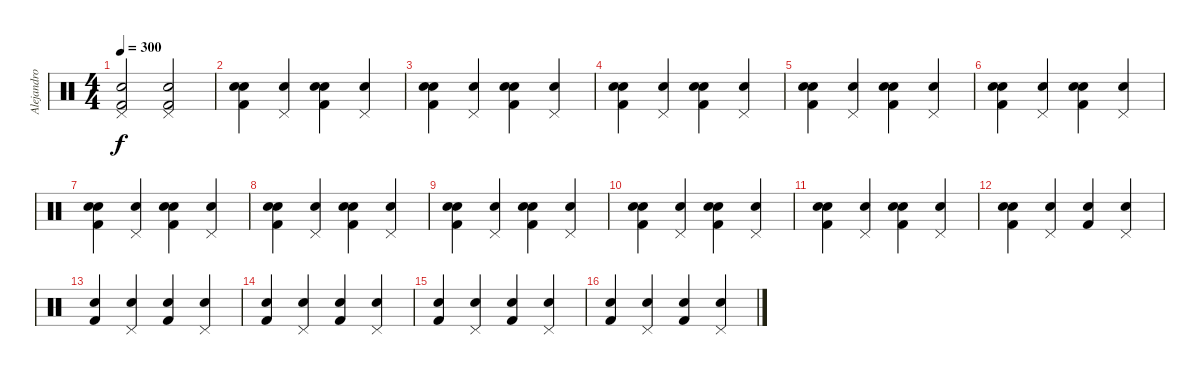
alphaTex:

\track ("Alejandro" "Alejandro") {instrument percussion}
\staff {score}
\articulation defaults
\ts (4 4)
\tempo 300
\clef neutral
\ks c
("Pedal Hi-Hat (hit)" "Electric Snare (hit)" "Kick (hit) 2").2{dy f} ("Pedal Hi-Hat (hit)" "Electric Snare (hit)" "Kick (hit) 2").2 |
("Snare (hit) 2" "Electric Snare (hit)" "Kick (hit) 2").4 ("Pedal Hi-Hat (hit)" "Snare (hit) 2").4 ("Snare (hit) 2" "Electric Snare (hit)" "Kick (hit) 2").4 ("Pedal Hi-Hat (hit)" "Snare (hit) 2").4 |
("Snare (hit) 2" "Electric Snare (hit)" "Kick (hit) 2").4 ("Pedal Hi-Hat (hit)" "Snare (hit) 2").4 ("Snare (hit) 2" "Electric Snare (hit)" "Kick (hit) 2").4 ("Pedal Hi-Hat (hit)" "Snare (hit) 2").4 |
("Snare (hit) 2" "Electric Snare (hit)" "Kick (hit) 2").4 ("Pedal Hi-Hat (hit)" "Snare (hit) 2").4 ("Snare (hit) 2" "Electric Snare (hit)" "Kick (hit) 2").4 ("Pedal Hi-Hat (hit)" "Snare (hit) 2").4 |
("Snare (hit) 2" "Electric Snare (hit)" "Kick (hit) 2").4 ("Pedal Hi-Hat (hit)" "Snare (hit) 2").4 ("Snare (hit) 2" "Electric Snare (hit)" "Kick (hit) 2").4 ("Pedal Hi-Hat (hit)" "Snare (hit) 2").4 |
("Snare (hit) 2" "Electric Snare (hit)" "Kick (hit) 2").4 ("Pedal Hi-Hat (hit)" "Snare (hit) 2").4 ("Snare (hit) 2" "Electric Snare (hit)" "Kick (hit) 2").4 ("Pedal Hi-Hat (hit)" "Snare (hit) 2").4 |
("Snare (hit) 2" "Electric Snare (hit)" "Kick (hit) 2").4 ("Pedal Hi-Hat (hit)" "Snare (hit) 2").4 ("Snare (hit) 2" "Electric Snare (hit)" "Kick (hit) 2").4 ("Pedal Hi-Hat (hit)" "Snare (hit) 2").4 |
("Snare (hit) 2" "Electric Snare (hit)" "Kick (hit) 2").4 ("Pedal Hi-Hat (hit)" "Snare (hit) 2").4 ("Snare (hit) 2" "Electric Snare (hit)" "Kick (hit) 2").4 ("Pedal Hi-Hat (hit)" "Snare (hit) 2").4 |
("Snare (hit) 2" "Electric Snare (hit)" "Kick (hit) 2").4 ("Pedal Hi-Hat (hit)" "Snare (hit) 2").4 ("Snare (hit) 2" "Electric Snare (hit)" "Kick (hit) 2").4 ("Pedal Hi-Hat (hit)" "Snare (hit) 2").4 |
("Snare (hit) 2" "Electric Snare (hit)" "Kick (hit) 2").4 ("Pedal Hi-Hat (hit)" "Snare (hit) 2").4 ("Snare (hit) 2" "Electric Snare (hit)" "Kick (hit) 2").4 ("Pedal Hi-Hat (hit)" "Snare (hit) 2").4 |
("Snare (hit) 2" "Electric Snare (hit)" "Kick (hit) 2").4 ("Pedal Hi-Hat (hit)" "Snare (hit) 2").4 ("Snare (hit) 2" "Electric Snare (hit)" "Kick (hit) 2").4 ("Pedal Hi-Hat (hit)" "Snare (hit) 2").4 |
("Snare (hit) 2" "Electric Snare (hit)" "Kick (hit) 2").4 ("Pedal Hi-Hat (hit)" "Snare (hit) 2").4 ("Electric Snare (hit)" "Kick (hit) 2").4 ("Pedal Hi-Hat (hit)" "Snare (hit) 2").4 |
("Electric Snare (hit)" "Kick (hit) 2").4 ("Pedal Hi-Hat (hit)" "Snare (hit) 2").4 ("Electric Snare (hit)" "Kick (hit) 2").4 ("Pedal Hi-Hat (hit)" "Snare (hit) 2").4 |
("Electric Snare (hit)" "Kick (hit) 2").4 ("Pedal Hi-Hat (hit)" "Snare (hit) 2").4 ("Electric Snare (hit)" "Kick (hit) 2").4 ("Pedal Hi-Hat (hit)" "Snare (hit)").4 |
("Electric Snare (hit)" "Kick (hit) 2").4 ("Pedal Hi-Hat (hit)" "Snare (hit)").4 ("Electric Snare (hit)" "Kick (hit) 2").4 ("Pedal Hi-Hat (hit)" "Snare (hit)").4 |
("Electric Snare (hit)" "Kick (hit) 2").4 ("Pedal Hi-Hat (hit)" "Snare (hit)").4 ("Electric Snare (hit)" "Kick (hit) 2").4 ("Pedal Hi-Hat (hit)" "Snare (hit)").4
